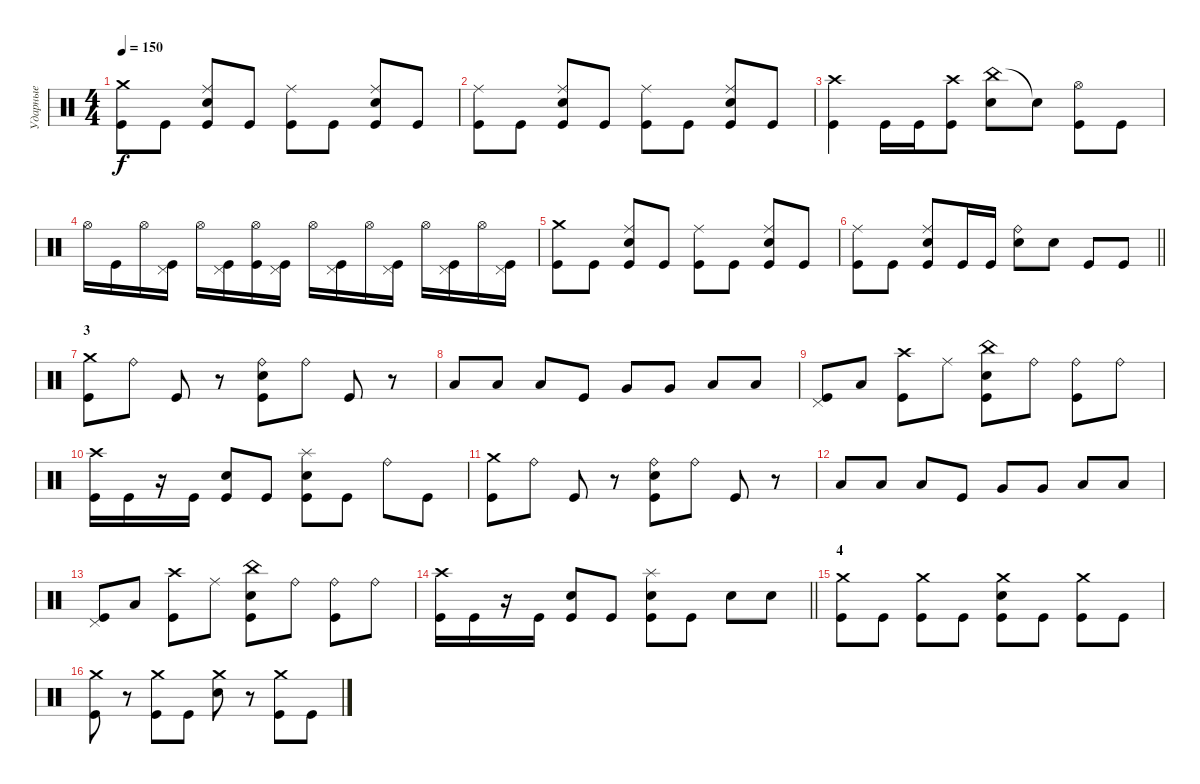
\track ("Ударные" "Ударные") {instrument percussion}
\staff {score}
\articulation defaults
\ts (4 4)
\tempo 150
\clef neutral
\ks c
("Crash medium (hit)" "Kick (hit)").8{dy f} "Kick (hit)".8 ("Ride (middle)" "Electric Snare (hit)" "Kick (hit)").8 "Kick (hit)".8 ("Ride (middle)" "Kick (hit)").8 "Kick (hit)".8 ("Ride (middle)" "Electric Snare (hit)" "Kick (hit)").8 "Kick (hit)".8 |
("Ride (middle)" "Kick (hit)").8 "Kick (hit)".8 ("Ride (middle)" "Electric Snare (hit)" "Kick (hit)").8 "Kick (hit)".8 ("Ride (middle)" "Kick (hit)").8 "Kick (hit)".8 ("Ride (middle)" "Electric Snare (hit)" "Kick (hit)").8 "Kick (hit)".8 |
("Crash high (hit)" "Kick (hit)").4 "Kick (hit)".16 "Kick (hit)".16 ("Crash high (hit)" "Kick (hit)").8 ("China (hit)" "Electric Snare (hit)").8 "Snare (hit)"{t}.8 ("Hi-Hat (open)" "Kick (hit)").8 "Kick (hit)".8 |
"Hi-Hat (open)".16 "Kick (hit)".16 "Hi-Hat (open)".16 ("Pedal Hi-Hat (hit)" "Kick (hit)").16 "Hi-Hat (open)".16 ("Pedal Hi-Hat (hit)" "Kick (hit)").16 ("Hi-Hat (open)" "Kick (hit)").16 ("Pedal Hi-Hat (hit)" "Kick (hit)").16 "Hi-Hat (open)".16 ("Pedal Hi-Hat (hit)" "Kick (hit)").16 "Hi-Hat (open)".16 ("Pedal Hi-Hat (hit)" "Kick (hit)").16 "Hi-Hat (open)".16 ("Pedal Hi-Hat (hit)" "Kick (hit)").16 "Hi-Hat (open)".16 ("Pedal Hi-Hat (hit)" "Kick (hit)").16 |
("Crash medium (hit)" "Kick (hit)").8 "Kick (hit)".8 ("Ride (middle)" "Electric Snare (hit)" "Kick (hit)").8 "Kick (hit)".8 ("Ride (middle)" "Kick (hit)").8 "Kick (hit)".8 ("Ride (middle)" "Electric Snare (hit)" "Kick (hit)").8 "Kick (hit)".8 |
\barLineRight lightlight
("Ride (middle)" "Kick (hit)").8 "Kick (hit)".8 ("Ride (middle)" "Electric Snare (hit)" "Kick (hit)").8 "Kick (hit)".16 "Kick (hit)".16 ("Ride (bell)" "Electric Snare (hit)").8 "Electric Snare (hit)".8 "Kick (hit)".8 "Kick (hit)".8 |
\section ("" "3")
("Crash medium (hit)" "Kick (hit)").8 "Ride (bell)".8 "Kick (hit)".8 r.8 ("Ride (bell)" "Electric Snare (hit)" "Kick (hit)").8 "Ride (bell)".8 "Kick (hit)".8 r.8 |
"Low Tom (hit)".8 "Low Tom (hit)".8 "Low Tom (hit)".8 "Kick (hit)".8 "Very Low Tom (hit)".8 "Very Low Tom (hit)".8 "Low Floor Tom (hit)".8 "Low Floor Tom (hit)".8 |
("Pedal Hi-Hat (hit)" "Kick (hit)").8 "Low Tom (hit)".8 ("Crash high (hit)" "Kick (hit)").8 "Ride (middle)".8 ("China (hit)" "Electric Snare (hit)" "Kick (hit)").8 "Ride (bell)".8 ("Ride (bell)" "Kick (hit)").8 "Ride (bell)".8 |
("Crash high (hit)" "Kick (hit)").16 "Kick (hit)".16 r.16 "Kick (hit)".16 ("Electric Snare (hit)" "Kick (hit)").8 "Kick (hit)".8 ("Splash (hit)" "Electric Snare (hit)" "Kick (hit)").8 "Kick (hit)".8 "Ride (bell)".8 "Kick (hit)".8 |
("Crash medium (hit)" "Kick (hit)").8 "Ride (bell)".8 "Kick (hit)".8 r.8 ("Ride (bell)" "Electric Snare (hit)" "Kick (hit)").8 "Ride (bell)".8 "Kick (hit)".8 r.8 |
"Low Tom (hit)".8 "Low Tom (hit)".8 "Low Tom (hit)".8 "Kick (hit)".8 "Very Low Tom (hit)".8 "Very Low Tom (hit)".8 "Low Floor Tom (hit)".8 "Low Floor Tom (hit)".8 |
("Pedal Hi-Hat (hit)" "Kick (hit)").8 "Low Tom (hit)".8 ("Crash high (hit)" "Kick (hit)").8 "Ride (middle)".8 ("China (hit)" "Electric Snare (hit)" "Kick (hit)").8 "Ride (bell)".8 ("Ride (bell)" "Kick (hit)").8 "Ride (bell)".8 |
\barLineRight lightlight
("Crash high (hit)" "Kick (hit)").16 "Kick (hit)".16 r.16 "Kick (hit)".16 ("Electric Snare (hit)" "Kick (hit)").8 "Kick (hit)".8 ("Splash (hit)" "Electric Snare (hit)" "Kick (hit)").8 "Kick (hit)".8 "Electric Snare (hit)".8 "Electric Snare (hit)".8 |
\section ("" "4")
("Crash medium (hit)" "Kick (hit)").8 "Kick (hit)".8 ("Crash medium (hit)" "Kick (hit)").8 "Kick (hit)".8 ("Crash medium (hit)" "Electric Snare (hit)" "Kick (hit)").8 "Kick (hit)".8 ("Crash medium (hit)" "Kick (hit)").8 "Kick (hit)".8 |
("Crash medium (hit)" "Kick (hit)").8 r.8 ("Crash medium (hit)" "Kick (hit)").8 "Kick (hit)".8 ("Crash medium (hit)" "Electric Snare (hit)").8 r.8 ("Crash medium (hit)" "Kick (hit)").8 "Kick (hit)".8
